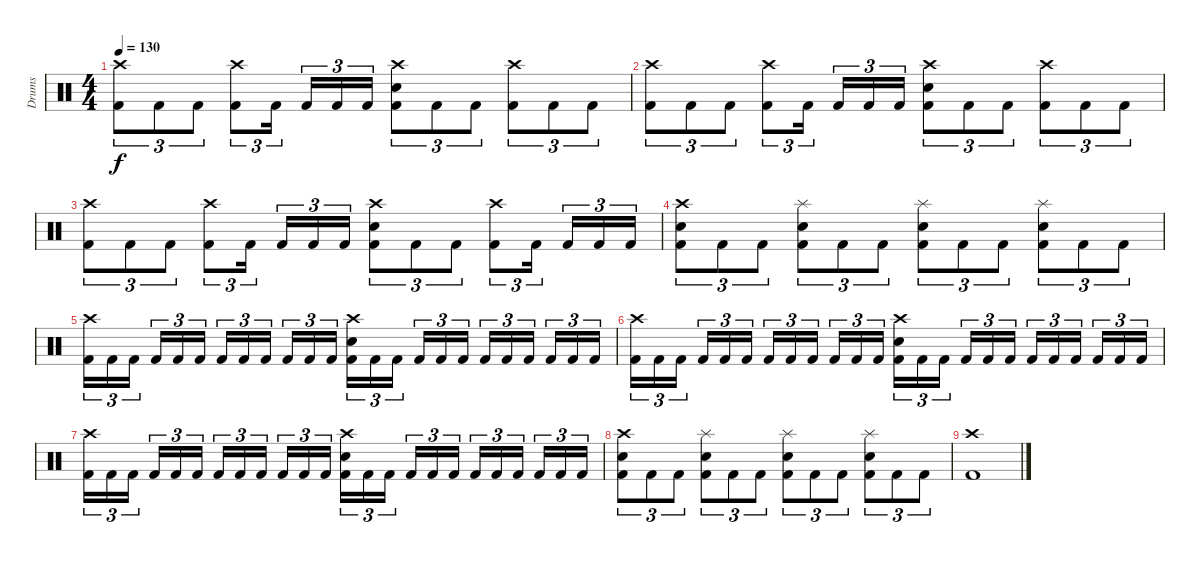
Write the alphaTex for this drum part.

\track ("Drums" "Drums") {instrument percussion}
\staff {score}
\articulation defaults
\ts (4 4)
\tempo 130
\clef neutral
\ks c
("Crash high (hit)" "Kick (hit) 2").8{tu (3 2) dy f} "Kick (hit) 2".8{tu (3 2)} "Kick (hit) 2".8{tu (3 2)} ("Crash high (hit)" "Kick (hit) 2").8{tu (3 2)} "Kick (hit) 2".16{tu (3 2) beam splitsecondary} "Kick (hit) 2".16{tu (3 2)} "Kick (hit) 2".16{tu (3 2)} "Kick (hit) 2".16{tu (3 2)} ("Crash high (hit)" "Electric Snare (hit)" "Kick (hit) 2").8{tu (3 2)} "Kick (hit) 2".8{tu (3 2)} "Kick (hit) 2".8{tu (3 2)} ("Crash high (hit)" "Kick (hit) 2").8{tu (3 2)} "Kick (hit) 2".8{tu (3 2)} "Kick (hit) 2".8{tu (3 2)} |
("Crash high (hit)" "Kick (hit) 2").8{tu (3 2)} "Kick (hit) 2".8{tu (3 2)} "Kick (hit) 2".8{tu (3 2)} ("Crash high (hit)" "Kick (hit) 2").8{tu (3 2)} "Kick (hit) 2".16{tu (3 2) beam splitsecondary} "Kick (hit) 2".16{tu (3 2)} "Kick (hit) 2".16{tu (3 2)} "Kick (hit) 2".16{tu (3 2)} ("Crash high (hit)" "Electric Snare (hit)" "Kick (hit) 2").8{tu (3 2)} "Kick (hit) 2".8{tu (3 2)} "Kick (hit) 2".8{tu (3 2)} ("Crash high (hit)" "Kick (hit) 2").8{tu (3 2)} "Kick (hit) 2".8{tu (3 2)} "Kick (hit) 2".8{tu (3 2)} |
("Crash high (hit)" "Kick (hit) 2").8{tu (3 2)} "Kick (hit) 2".8{tu (3 2)} "Kick (hit) 2".8{tu (3 2)} ("Crash high (hit)" "Kick (hit) 2").8{tu (3 2)} "Kick (hit) 2".16{tu (3 2) beam splitsecondary} "Kick (hit) 2".16{tu (3 2)} "Kick (hit) 2".16{tu (3 2)} "Kick (hit) 2".16{tu (3 2)} ("Crash high (hit)" "Electric Snare (hit)" "Kick (hit) 2").8{tu (3 2)} "Kick (hit) 2".8{tu (3 2)} "Kick (hit) 2".8{tu (3 2)} ("Crash high (hit)" "Kick (hit) 2").8{tu (3 2)} "Kick (hit) 2".16{tu (3 2) beam splitsecondary} "Kick (hit) 2".16{tu (3 2)} "Kick (hit) 2".16{tu (3 2)} "Kick (hit) 2".16{tu (3 2)} |
("Crash high (hit)" "Electric Snare (hit)" "Kick (hit) 2").8{tu (3 2)} "Kick (hit) 2".8{tu (3 2)} "Kick (hit) 2".8{tu (3 2)} ("Splash (hit)" "Electric Snare (hit)" "Kick (hit) 2").8{tu (3 2)} "Kick (hit) 2".8{tu (3 2)} "Kick (hit) 2".8{tu (3 2)} ("Splash (hit)" "Electric Snare (hit)" "Kick (hit) 2").8{tu (3 2)} "Kick (hit) 2".8{tu (3 2)} "Kick (hit) 2".8{tu (3 2)} ("Splash (hit)" "Electric Snare (hit)" "Kick (hit) 2").8{tu (3 2)} "Kick (hit) 2".8{tu (3 2)} "Kick (hit) 2".8{tu (3 2)} |
("Crash high (hit)" "Kick (hit) 2").16{tu (3 2)} "Kick (hit) 2".16{tu (3 2)} "Kick (hit) 2".16{tu (3 2) beam splitsecondary} "Kick (hit) 2".16{tu (3 2)} "Kick (hit) 2".16{tu (3 2)} "Kick (hit) 2".16{tu (3 2)} "Kick (hit) 2".16{tu (3 2)} "Kick (hit) 2".16{tu (3 2)} "Kick (hit) 2".16{tu (3 2) beam splitsecondary} "Kick (hit) 2".16{tu (3 2)} "Kick (hit) 2".16{tu (3 2)} "Kick (hit) 2".16{tu (3 2)} ("Crash high (hit)" "Electric Snare (hit)" "Kick (hit) 2").16{tu (3 2)} "Kick (hit) 2".16{tu (3 2)} "Kick (hit) 2".16{tu (3 2) beam splitsecondary} "Kick (hit) 2".16{tu (3 2)} "Kick (hit) 2".16{tu (3 2)} "Kick (hit) 2".16{tu (3 2)} "Kick (hit) 2".16{tu (3 2)} "Kick (hit) 2".16{tu (3 2)} "Kick (hit) 2".16{tu (3 2) beam splitsecondary} "Kick (hit) 2".16{tu (3 2)} "Kick (hit) 2".16{tu (3 2)} "Kick (hit) 2".16{tu (3 2)} |
("Crash high (hit)" "Kick (hit) 2").16{tu (3 2)} "Kick (hit) 2".16{tu (3 2)} "Kick (hit) 2".16{tu (3 2) beam splitsecondary} "Kick (hit) 2".16{tu (3 2)} "Kick (hit) 2".16{tu (3 2)} "Kick (hit) 2".16{tu (3 2)} "Kick (hit) 2".16{tu (3 2)} "Kick (hit) 2".16{tu (3 2)} "Kick (hit) 2".16{tu (3 2) beam splitsecondary} "Kick (hit) 2".16{tu (3 2)} "Kick (hit) 2".16{tu (3 2)} "Kick (hit) 2".16{tu (3 2)} ("Crash high (hit)" "Electric Snare (hit)" "Kick (hit) 2").16{tu (3 2)} "Kick (hit) 2".16{tu (3 2)} "Kick (hit) 2".16{tu (3 2) beam splitsecondary} "Kick (hit) 2".16{tu (3 2)} "Kick (hit) 2".16{tu (3 2)} "Kick (hit) 2".16{tu (3 2)} "Kick (hit) 2".16{tu (3 2)} "Kick (hit) 2".16{tu (3 2)} "Kick (hit) 2".16{tu (3 2) beam splitsecondary} "Kick (hit) 2".16{tu (3 2)} "Kick (hit) 2".16{tu (3 2)} "Kick (hit) 2".16{tu (3 2)} |
("Crash high (hit)" "Kick (hit) 2").16{tu (3 2)} "Kick (hit) 2".16{tu (3 2)} "Kick (hit) 2".16{tu (3 2) beam splitsecondary} "Kick (hit) 2".16{tu (3 2)} "Kick (hit) 2".16{tu (3 2)} "Kick (hit) 2".16{tu (3 2)} "Kick (hit) 2".16{tu (3 2)} "Kick (hit) 2".16{tu (3 2)} "Kick (hit) 2".16{tu (3 2) beam splitsecondary} "Kick (hit) 2".16{tu (3 2)} "Kick (hit) 2".16{tu (3 2)} "Kick (hit) 2".16{tu (3 2)} ("Crash high (hit)" "Electric Snare (hit)" "Kick (hit) 2").16{tu (3 2)} "Kick (hit) 2".16{tu (3 2)} "Kick (hit) 2".16{tu (3 2) beam splitsecondary} "Kick (hit) 2".16{tu (3 2)} "Kick (hit) 2".16{tu (3 2)} "Kick (hit) 2".16{tu (3 2)} "Kick (hit) 2".16{tu (3 2)} "Kick (hit) 2".16{tu (3 2)} "Kick (hit) 2".16{tu (3 2) beam splitsecondary} "Kick (hit) 2".16{tu (3 2)} "Kick (hit) 2".16{tu (3 2)} "Kick (hit) 2".16{tu (3 2)} |
("Crash high (hit)" "Electric Snare (hit)" "Kick (hit) 2").8{tu (3 2)} "Kick (hit) 2".8{tu (3 2)} "Kick (hit) 2".8{tu (3 2)} ("Splash (hit)" "Electric Snare (hit)" "Kick (hit) 2").8{tu (3 2)} "Kick (hit) 2".8{tu (3 2)} "Kick (hit) 2".8{tu (3 2)} ("Splash (hit)" "Electric Snare (hit)" "Kick (hit) 2").8{tu (3 2)} "Kick (hit) 2".8{tu (3 2)} "Kick (hit) 2".8{tu (3 2)} ("Splash (hit)" "Electric Snare (hit)" "Kick (hit) 2").8{tu (3 2)} "Kick (hit) 2".8{tu (3 2)} "Kick (hit) 2".8{tu (3 2)} |
("Crash high (hit)" "Kick (hit) 2").1
